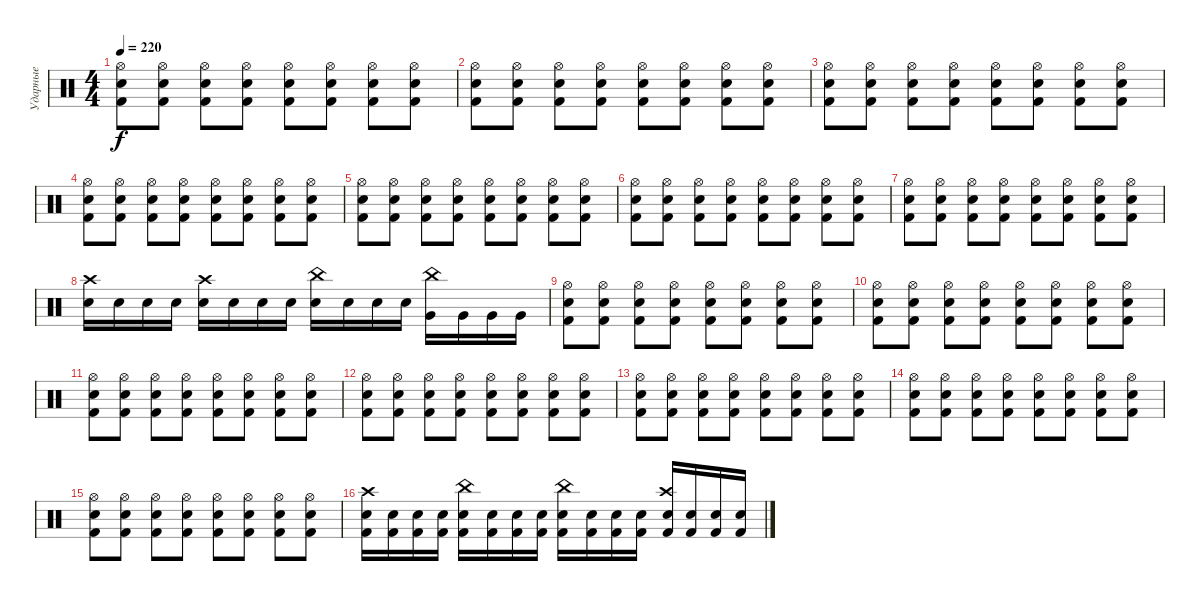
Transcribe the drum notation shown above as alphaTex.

\track ("Ударные" "Ударные") {instrument percussion}
\staff {score}
\articulation defaults
\ts (4 4)
\tempo 220
\clef neutral
\ks c
("Kick (hit) 2" "Electric Snare (hit)" "Hi-Hat (open)").8{dy f} ("Hi-Hat (open)" "Kick (hit) 2" "Electric Snare (hit)").8 ("Electric Snare (hit)" "Kick (hit) 2" "Hi-Hat (open)").8 ("Hi-Hat (open)" "Kick (hit) 2" "Electric Snare (hit)").8 ("Electric Snare (hit)" "Kick (hit) 2" "Hi-Hat (open)").8 ("Hi-Hat (open)" "Kick (hit) 2" "Electric Snare (hit)").8 ("Electric Snare (hit)" "Kick (hit) 2" "Hi-Hat (open)").8 ("Hi-Hat (open)" "Kick (hit) 2" "Electric Snare (hit)").8 |
("Kick (hit) 2" "Electric Snare (hit)" "Hi-Hat (open)").8 ("Hi-Hat (open)" "Kick (hit) 2" "Electric Snare (hit)").8 ("Electric Snare (hit)" "Kick (hit) 2" "Hi-Hat (open)").8 ("Hi-Hat (open)" "Kick (hit) 2" "Electric Snare (hit)").8 ("Electric Snare (hit)" "Kick (hit) 2" "Hi-Hat (open)").8 ("Hi-Hat (open)" "Kick (hit) 2" "Electric Snare (hit)").8 ("Electric Snare (hit)" "Kick (hit) 2" "Hi-Hat (open)").8 ("Hi-Hat (open)" "Kick (hit) 2" "Electric Snare (hit)").8 |
("Kick (hit) 2" "Electric Snare (hit)" "Hi-Hat (open)").8 ("Hi-Hat (open)" "Kick (hit) 2" "Electric Snare (hit)").8 ("Electric Snare (hit)" "Kick (hit) 2" "Hi-Hat (open)").8 ("Hi-Hat (open)" "Kick (hit) 2" "Electric Snare (hit)").8 ("Electric Snare (hit)" "Kick (hit) 2" "Hi-Hat (open)").8 ("Hi-Hat (open)" "Kick (hit) 2" "Electric Snare (hit)").8 ("Electric Snare (hit)" "Kick (hit) 2" "Hi-Hat (open)").8 ("Hi-Hat (open)" "Kick (hit) 2" "Electric Snare (hit)").8 |
("Kick (hit) 2" "Electric Snare (hit)" "Hi-Hat (open)").8 ("Hi-Hat (open)" "Kick (hit) 2" "Electric Snare (hit)").8 ("Electric Snare (hit)" "Kick (hit) 2" "Hi-Hat (open)").8 ("Hi-Hat (open)" "Kick (hit) 2" "Electric Snare (hit)").8 ("Electric Snare (hit)" "Kick (hit) 2" "Hi-Hat (open)").8 ("Hi-Hat (open)" "Kick (hit) 2" "Electric Snare (hit)").8 ("Electric Snare (hit)" "Kick (hit) 2" "Hi-Hat (open)").8 ("Hi-Hat (open)" "Kick (hit) 2" "Electric Snare (hit)").8 |
("Kick (hit) 2" "Electric Snare (hit)" "Hi-Hat (open)").8 ("Hi-Hat (open)" "Kick (hit) 2" "Electric Snare (hit)").8 ("Electric Snare (hit)" "Kick (hit) 2" "Hi-Hat (open)").8 ("Hi-Hat (open)" "Kick (hit) 2" "Electric Snare (hit)").8 ("Electric Snare (hit)" "Kick (hit) 2" "Hi-Hat (open)").8 ("Hi-Hat (open)" "Kick (hit) 2" "Electric Snare (hit)").8 ("Electric Snare (hit)" "Kick (hit) 2" "Hi-Hat (open)").8 ("Hi-Hat (open)" "Kick (hit) 2" "Electric Snare (hit)").8 |
("Kick (hit) 2" "Electric Snare (hit)" "Hi-Hat (open)").8 ("Hi-Hat (open)" "Kick (hit) 2" "Electric Snare (hit)").8 ("Electric Snare (hit)" "Kick (hit) 2" "Hi-Hat (open)").8 ("Hi-Hat (open)" "Kick (hit) 2" "Electric Snare (hit)").8 ("Electric Snare (hit)" "Kick (hit) 2" "Hi-Hat (open)").8 ("Hi-Hat (open)" "Kick (hit) 2" "Electric Snare (hit)").8 ("Electric Snare (hit)" "Kick (hit) 2" "Hi-Hat (open)").8 ("Hi-Hat (open)" "Kick (hit) 2" "Electric Snare (hit)").8 |
("Kick (hit) 2" "Electric Snare (hit)" "Hi-Hat (open)").8 ("Hi-Hat (open)" "Kick (hit) 2" "Electric Snare (hit)").8 ("Electric Snare (hit)" "Kick (hit) 2" "Hi-Hat (open)").8 ("Hi-Hat (open)" "Kick (hit) 2" "Electric Snare (hit)").8 ("Electric Snare (hit)" "Kick (hit) 2" "Hi-Hat (open)").8 ("Hi-Hat (open)" "Kick (hit) 2" "Electric Snare (hit)").8 ("Electric Snare (hit)" "Kick (hit) 2" "Hi-Hat (open)").8 ("Hi-Hat (open)" "Kick (hit) 2" "Electric Snare (hit)").8 |
("Electric Snare (hit)" "Crash high (hit)").16 "Electric Snare (hit)".16 "Electric Snare (hit)".16 "Electric Snare (hit)".16 ("Electric Snare (hit)" "Crash high (hit)").16 "Electric Snare (hit)".16 "Snare (hit) 2".16 "Snare (hit) 2".16 ("Snare (hit) 2" "China (hit)").16 "Snare (hit) 2".16 "Snare (hit) 2".16 "Snare (hit) 2".16 ("Very Low Tom (hit)" "China (hit)").16 "Very Low Tom (hit)".16 "Very Low Tom (hit)".16 "Very Low Tom (hit)".16 |
("Kick (hit) 2" "Electric Snare (hit)" "Hi-Hat (open)").8 ("Hi-Hat (open)" "Kick (hit) 2" "Electric Snare (hit)").8 ("Electric Snare (hit)" "Kick (hit) 2" "Hi-Hat (open)").8 ("Hi-Hat (open)" "Kick (hit) 2" "Electric Snare (hit)").8 ("Electric Snare (hit)" "Kick (hit) 2" "Hi-Hat (open)").8 ("Hi-Hat (open)" "Kick (hit) 2" "Electric Snare (hit)").8 ("Electric Snare (hit)" "Kick (hit) 2" "Hi-Hat (open)").8 ("Hi-Hat (open)" "Kick (hit) 2" "Electric Snare (hit)").8 |
("Kick (hit) 2" "Electric Snare (hit)" "Hi-Hat (open)").8 ("Hi-Hat (open)" "Kick (hit) 2" "Electric Snare (hit)").8 ("Electric Snare (hit)" "Kick (hit) 2" "Hi-Hat (open)").8 ("Hi-Hat (open)" "Kick (hit) 2" "Electric Snare (hit)").8 ("Electric Snare (hit)" "Kick (hit) 2" "Hi-Hat (open)").8 ("Hi-Hat (open)" "Kick (hit) 2" "Electric Snare (hit)").8 ("Electric Snare (hit)" "Kick (hit) 2" "Hi-Hat (open)").8 ("Hi-Hat (open)" "Kick (hit) 2" "Electric Snare (hit)").8 |
("Kick (hit) 2" "Electric Snare (hit)" "Hi-Hat (open)").8 ("Hi-Hat (open)" "Kick (hit) 2" "Electric Snare (hit)").8 ("Electric Snare (hit)" "Kick (hit) 2" "Hi-Hat (open)").8 ("Hi-Hat (open)" "Kick (hit) 2" "Electric Snare (hit)").8 ("Electric Snare (hit)" "Kick (hit) 2" "Hi-Hat (open)").8 ("Hi-Hat (open)" "Kick (hit) 2" "Electric Snare (hit)").8 ("Electric Snare (hit)" "Kick (hit) 2" "Hi-Hat (open)").8 ("Hi-Hat (open)" "Kick (hit) 2" "Electric Snare (hit)").8 |
("Kick (hit) 2" "Electric Snare (hit)" "Hi-Hat (open)").8 ("Hi-Hat (open)" "Kick (hit) 2" "Electric Snare (hit)").8 ("Electric Snare (hit)" "Kick (hit) 2" "Hi-Hat (open)").8 ("Hi-Hat (open)" "Kick (hit) 2" "Electric Snare (hit)").8 ("Electric Snare (hit)" "Kick (hit) 2" "Hi-Hat (open)").8 ("Hi-Hat (open)" "Kick (hit) 2" "Electric Snare (hit)").8 ("Electric Snare (hit)" "Kick (hit) 2" "Hi-Hat (open)").8 ("Hi-Hat (open)" "Kick (hit) 2" "Electric Snare (hit)").8 |
("Kick (hit) 2" "Electric Snare (hit)" "Hi-Hat (open)").8 ("Hi-Hat (open)" "Kick (hit) 2" "Electric Snare (hit)").8 ("Electric Snare (hit)" "Kick (hit) 2" "Hi-Hat (open)").8 ("Hi-Hat (open)" "Kick (hit) 2" "Electric Snare (hit)").8 ("Electric Snare (hit)" "Kick (hit) 2" "Hi-Hat (open)").8 ("Hi-Hat (open)" "Kick (hit) 2" "Electric Snare (hit)").8 ("Electric Snare (hit)" "Kick (hit) 2" "Hi-Hat (open)").8 ("Hi-Hat (open)" "Kick (hit) 2" "Electric Snare (hit)").8 |
("Kick (hit) 2" "Electric Snare (hit)" "Hi-Hat (open)").8 ("Hi-Hat (open)" "Kick (hit) 2" "Electric Snare (hit)").8 ("Electric Snare (hit)" "Kick (hit) 2" "Hi-Hat (open)").8 ("Hi-Hat (open)" "Kick (hit) 2" "Electric Snare (hit)").8 ("Electric Snare (hit)" "Kick (hit) 2" "Hi-Hat (open)").8 ("Hi-Hat (open)" "Kick (hit) 2" "Electric Snare (hit)").8 ("Electric Snare (hit)" "Kick (hit) 2" "Hi-Hat (open)").8 ("Hi-Hat (open)" "Kick (hit) 2" "Electric Snare (hit)").8 |
("Kick (hit) 2" "Electric Snare (hit)" "Hi-Hat (open)").8 ("Hi-Hat (open)" "Kick (hit) 2" "Electric Snare (hit)").8 ("Electric Snare (hit)" "Kick (hit) 2" "Hi-Hat (open)").8 ("Hi-Hat (open)" "Kick (hit) 2" "Electric Snare (hit)").8 ("Electric Snare (hit)" "Kick (hit) 2" "Hi-Hat (open)").8 ("Hi-Hat (open)" "Kick (hit) 2" "Electric Snare (hit)").8 ("Electric Snare (hit)" "Kick (hit) 2" "Hi-Hat (open)").8 ("Hi-Hat (open)" "Kick (hit) 2" "Electric Snare (hit)").8 |
("Electric Snare (hit)" "Kick (hit) 2" "Crash high (hit)").16 ("Electric Snare (hit)" "Kick (hit) 2").16 ("Electric Snare (hit)" "Kick (hit) 2").16 ("Electric Snare (hit)" "Kick (hit) 2").16 ("Electric Snare (hit)" "Kick (hit) 2" "China (hit)").16 ("Electric Snare (hit)" "Kick (hit) 2").16 ("Snare (hit) 2" "Kick (hit) 2").16 ("Snare (hit) 2" "Kick (hit) 2").16 ("Snare (hit) 2" "Kick (hit) 2" "China (hit)").16 ("Snare (hit) 2" "Kick (hit) 2").16 ("Snare (hit) 2" "Kick (hit) 2").16 ("Snare (hit) 2" "Kick (hit) 2").16 ("Snare (hit) 2" "Kick (hit) 2" "Crash high (hit)").16 ("Snare (hit) 2" "Kick (hit) 2").16 ("Electric Snare (hit)" "Kick (hit) 2").16 ("Electric Snare (hit)" "Kick (hit) 2").16
